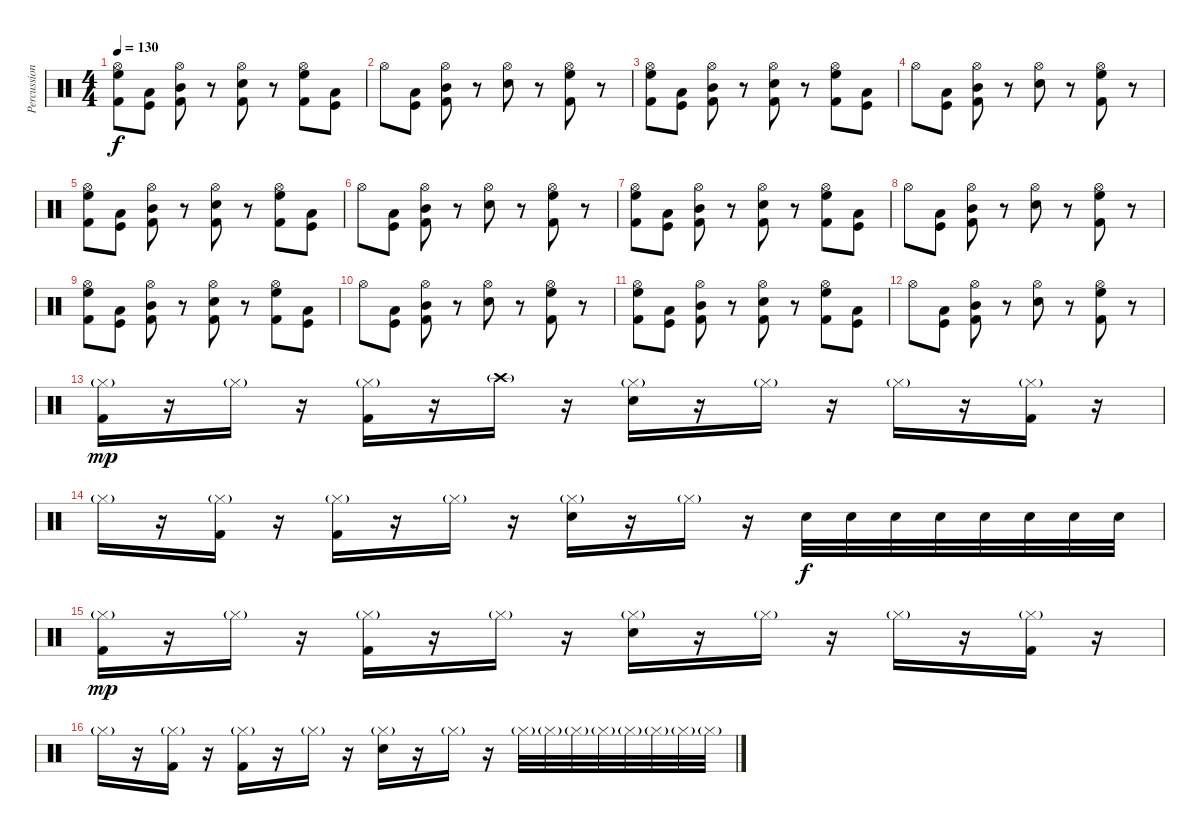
\track ("Percussion" "Percussion") {instrument percussion}
\staff {score}
\articulation defaults
\ts (4 4)
\tempo 130
\clef neutral
\ks c
("Hi-Hat (open)" "High Floor Tom (hit)" "Kick (hit) 2").8{dy f} ("Low Tom (hit)" "Kick (hit)").8 ("Hi-Hat (open)" "Mid Tom (hit)" "Kick (hit) 2").8 r.8 ("Hi-Hat (open)" "Snare (hit) 2" "Kick (hit) 2").8 r.8 ("Hi-Hat (open)" "High Floor Tom (hit)" "Kick (hit) 2").8 ("Low Tom (hit)" "Kick (hit)").8 |
"Hi-Hat (open)".8 ("Low Tom (hit)" "Kick (hit)").8 ("Hi-Hat (open)" "Mid Tom (hit)" "Kick (hit) 2").8 r.8 ("Hi-Hat (open)" "Snare (hit) 2").8 r.8 ("Hi-Hat (open)" "High Floor Tom (hit)" "Kick (hit) 2").8 r.8 |
("Hi-Hat (open)" "High Floor Tom (hit)" "Kick (hit) 2").8 ("Low Tom (hit)" "Kick (hit)").8 ("Hi-Hat (open)" "Mid Tom (hit)" "Kick (hit) 2").8 r.8 ("Hi-Hat (open)" "Snare (hit) 2" "Kick (hit) 2").8 r.8 ("Hi-Hat (open)" "High Floor Tom (hit)" "Kick (hit) 2").8 ("Low Tom (hit)" "Kick (hit)").8 |
"Hi-Hat (open)".8 ("Low Tom (hit)" "Kick (hit)").8 ("Hi-Hat (open)" "Mid Tom (hit)" "Kick (hit) 2").8 r.8 ("Hi-Hat (open)" "Snare (hit) 2").8 r.8 ("Hi-Hat (open)" "High Floor Tom (hit)" "Kick (hit) 2").8 r.8 |
("Hi-Hat (open)" "High Floor Tom (hit)" "Kick (hit) 2").8 ("Low Tom (hit)" "Kick (hit)").8 ("Hi-Hat (open)" "Mid Tom (hit)" "Kick (hit) 2").8 r.8 ("Hi-Hat (open)" "Snare (hit) 2" "Kick (hit) 2").8 r.8 ("Hi-Hat (open)" "High Floor Tom (hit)" "Kick (hit) 2").8 ("Low Tom (hit)" "Kick (hit)").8 |
"Hi-Hat (open)".8 ("Low Tom (hit)" "Kick (hit)").8 ("Hi-Hat (open)" "Mid Tom (hit)" "Kick (hit) 2").8 r.8 ("Hi-Hat (open)" "Snare (hit) 2").8 r.8 ("Hi-Hat (open)" "High Floor Tom (hit)" "Kick (hit) 2").8 r.8 |
("Hi-Hat (open)" "High Floor Tom (hit)" "Kick (hit) 2").8 ("Low Tom (hit)" "Kick (hit)").8 ("Hi-Hat (open)" "Mid Tom (hit)" "Kick (hit) 2").8 r.8 ("Hi-Hat (open)" "Snare (hit) 2" "Kick (hit) 2").8 r.8 ("Hi-Hat (open)" "High Floor Tom (hit)" "Kick (hit) 2").8 ("Low Tom (hit)" "Kick (hit)").8 |
"Hi-Hat (open)".8 ("Low Tom (hit)" "Kick (hit)").8 ("Hi-Hat (open)" "Mid Tom (hit)" "Kick (hit) 2").8 r.8 ("Hi-Hat (open)" "Snare (hit) 2").8 r.8 ("Hi-Hat (open)" "High Floor Tom (hit)" "Kick (hit) 2").8 r.8 |
("Hi-Hat (open)" "High Floor Tom (hit)" "Kick (hit) 2").8 ("Low Tom (hit)" "Kick (hit)").8 ("Hi-Hat (open)" "Mid Tom (hit)" "Kick (hit) 2").8 r.8 ("Hi-Hat (open)" "Snare (hit) 2" "Kick (hit) 2").8 r.8 ("Hi-Hat (open)" "High Floor Tom (hit)" "Kick (hit) 2").8 ("Low Tom (hit)" "Kick (hit)").8 |
"Hi-Hat (open)".8 ("Low Tom (hit)" "Kick (hit)").8 ("Hi-Hat (open)" "Mid Tom (hit)" "Kick (hit) 2").8 r.8 ("Hi-Hat (open)" "Snare (hit) 2").8 r.8 ("Hi-Hat (open)" "High Floor Tom (hit)" "Kick (hit) 2").8 r.8 |
("Hi-Hat (open)" "High Floor Tom (hit)" "Kick (hit) 2").8 ("Low Tom (hit)" "Kick (hit)").8 ("Hi-Hat (open)" "Mid Tom (hit)" "Kick (hit) 2").8 r.8 ("Hi-Hat (open)" "Snare (hit) 2" "Kick (hit) 2").8 r.8 ("Hi-Hat (open)" "High Floor Tom (hit)" "Kick (hit) 2").8 ("Low Tom (hit)" "Kick (hit)").8 |
"Hi-Hat (open)".8 ("Low Tom (hit)" "Kick (hit)").8 ("Hi-Hat (open)" "Mid Tom (hit)" "Kick (hit) 2").8 r.8 ("Hi-Hat (open)" "Snare (hit) 2").8 r.8 ("Hi-Hat (open)" "High Floor Tom (hit)" "Kick (hit) 2").8 r.8 |
("Hi-Hat (closed)"{g} "Kick (hit) 2").16{dy mp} r.16 "Hi-Hat (closed)"{g}.16 r.16 ("Hi-Hat (closed)"{g} "Kick (hit) 2").16 r.16 "Crash high (hit)"{g}.16 r.16 ("Hi-Hat (closed)"{g} "Snare (hit) 2").16 r.16 "Hi-Hat (closed)"{g}.16 r.16 "Hi-Hat (closed)"{g}.16 r.16 ("Hi-Hat (closed)"{g} "Kick (hit) 2").16 r.16 |
"Hi-Hat (closed)"{g}.16 r.16 ("Hi-Hat (closed)"{g} "Kick (hit) 2").16 r.16 ("Hi-Hat (closed)"{g} "Kick (hit) 2").16 r.16 "Hi-Hat (closed)"{g}.16 r.16 ("Hi-Hat (closed)"{g} "Snare (hit) 2").16 r.16 "Hi-Hat (closed)"{g}.16 r.16 "Snare (hit) 2".32{dy f} "Snare (hit) 2".32 "Snare (hit) 2".32 "Snare (hit) 2".32 "Snare (hit) 2".32 "Snare (hit) 2".32 "Snare (hit) 2".32 "Snare (hit) 2".32 |
("Hi-Hat (closed)"{g} "Kick (hit) 2").16{dy mp} r.16 "Hi-Hat (closed)"{g}.16 r.16 ("Hi-Hat (closed)"{g} "Kick (hit) 2").16 r.16 "Hi-Hat (closed)"{g}.16 r.16 ("Hi-Hat (closed)"{g} "Snare (hit) 2").16 r.16 "Hi-Hat (closed)"{g}.16 r.16 "Hi-Hat (closed)"{g}.16 r.16 ("Hi-Hat (closed)"{g} "Kick (hit) 2").16 r.16 |
"Hi-Hat (closed)"{g}.16 r.16 ("Hi-Hat (closed)"{g} "Kick (hit) 2").16 r.16 ("Hi-Hat (closed)"{g} "Kick (hit) 2").16 r.16 "Hi-Hat (closed)"{g}.16 r.16 ("Hi-Hat (closed)"{g} "Snare (hit) 2").16 r.16 "Hi-Hat (closed)"{g}.16 r.16 "Hi-Hat (closed)"{g}.32 "Hi-Hat (closed)"{g}.32 "Hi-Hat (closed)"{g}.32 "Hi-Hat (closed)"{g}.32 "Hi-Hat (closed)"{g}.32 "Hi-Hat (closed)"{g}.32 "Hi-Hat (closed)"{g}.32 "Hi-Hat (closed)"{g}.32
